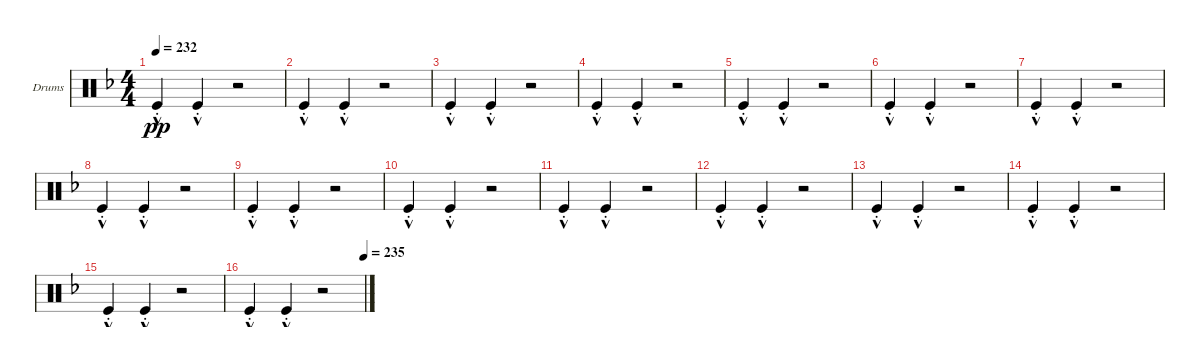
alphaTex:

\defaultSystemsLayout 4
\bracketExtendMode groupsimilarinstruments
\firstSystemTrackNameOrientation horizontal
\otherSystemsTrackNameOrientation horizontal
\track ("Drumkit" "Drums") {instrument percussion}
\staff {score}
\articulation defaults
\ts (4 4)
\tempo 232
\clef neutral
\ks dminor "Kick (hit)"{hac st}.4{dy pp} "Kick (hit)"{hac st}.4
r.2 |
"Kick (hit)"{hac st}.4 "Kick (hit)"{hac st}.4 r.2 |
"Kick (hit)"{hac st}.4 "Kick (hit)"{hac st}.4 r.2 |
"Kick (hit)"{hac st}.4 "Kick (hit)"{hac st}.4 r.2 |
"Kick (hit)"{hac st}.4 "Kick (hit)"{hac st}.4 r.2 |
"Kick (hit)"{hac st}.4 "Kick (hit)"{hac st}.4 r.2 |
"Kick (hit)"{hac st}.4 "Kick (hit)"{hac st}.4 r.2 |
"Kick (hit)"{hac st}.4 "Kick (hit)"{hac st}.4 r.2 |
"Kick (hit)"{hac st}.4 "Kick (hit)"{hac st}.4 r.2 |
"Kick (hit)"{hac st}.4 "Kick (hit)"{hac st}.4 r.2 |
"Kick (hit)"{hac st}.4 "Kick (hit)"{hac st}.4 r.2 |
"Kick (hit)"{hac st}.4 "Kick (hit)"{hac st}.4 r.2 |
"Kick (hit)"{hac st}.4 "Kick (hit)"{hac st}.4 r.2 |
"Kick (hit)"{hac st}.4 "Kick (hit)"{hac st}.4 r.2 |
"Kick (hit)"{hac st}.4 "Kick (hit)"{hac st}.4 r.2 |
\tempo (235 1)
"Kick (hit)"{hac st}.4 "Kick (hit)"{hac st}.4 r.2
